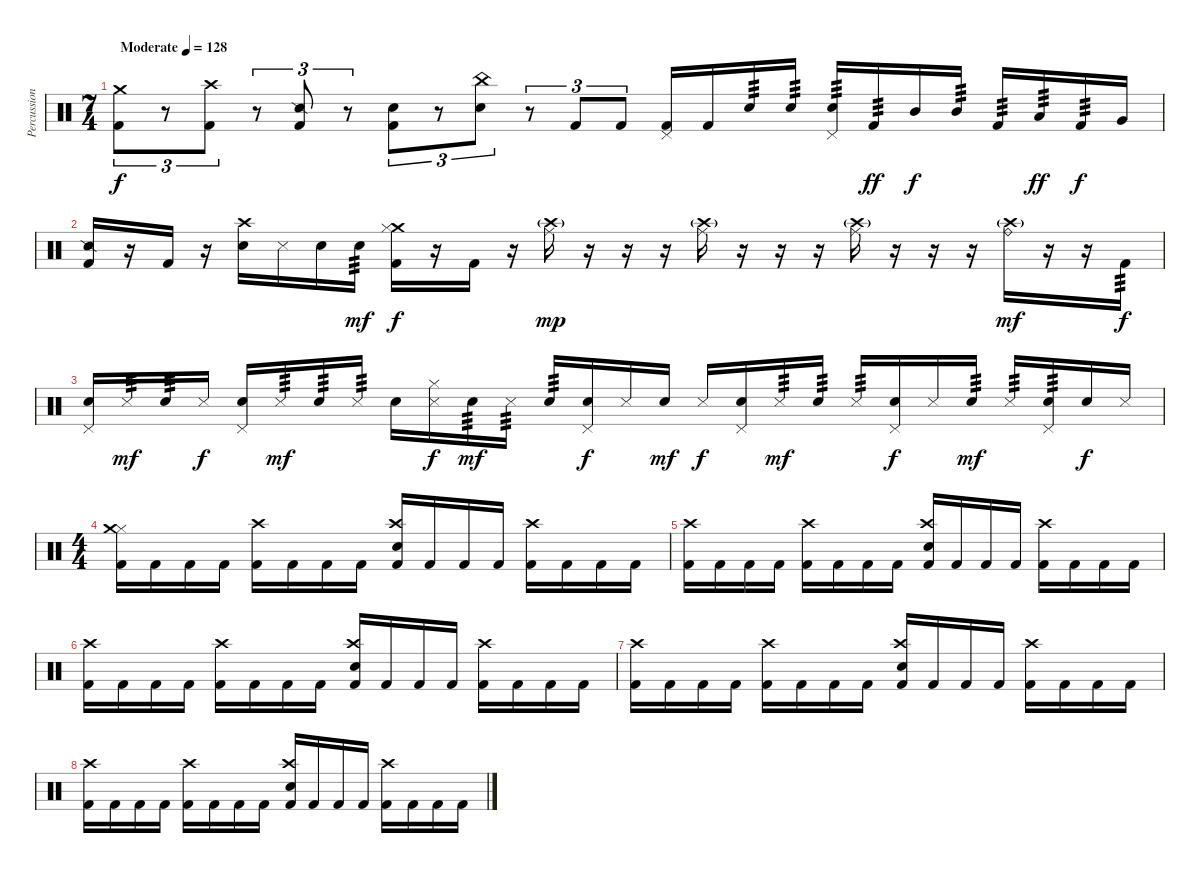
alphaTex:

\track ("Percussion" "Percussion") {instrument percussion}
\staff {score}
\articulation defaults
\ts (7 4)
\tempo (128 "Moderate")
\clef neutral
\ks c
("Crash medium (hit)" "Kick (hit) 2").8{tu (3 2) dy f} r.8{tu (3 2)} ("Crash high (hit)" "Kick (hit) 2").8{tu (3 2)} r.8{tu (3 2)} ("Snare (side stick) 2" "Kick (hit) 2").8{tu (3 2)} r.8{tu (3 2)} ("Snare (hit)" "Kick (hit) 2").8{tu (3 2)} r.8{tu (3 2)} ("China (hit)" "Snare (hit) 2").8{tu (3 2)} r.8{tu (3 2)} "Kick (hit) 2".8{tu (3 2)} "Kick (hit) 2".8{tu (3 2)} ("Pedal Hi-Hat (hit)" "Kick (hit) 2").16 "Kick (hit) 2".16 "Snare (hit) 2".16{tp 3} "Snare (hit) 2".16{tp 3} ("Pedal Hi-Hat (hit)" "Snare (hit) 2").16{tp 3} "Kick (hit) 2".16{tp 3 dy ff} "Mid Tom (hit)".16{dy f} "Mid Tom (hit)".16{tp 3} "Kick (hit) 2".16{tp 3} "Low Tom (hit)".16{tp 3 dy ff} "Kick (hit) 2".16{tp 3 dy f} "Very Low Tom (hit)".16 |
("Snare (side stick) 2" "Kick (hit) 2").16 r.16 "Kick (hit) 2".16 r.16 ("Crash high (hit)" "Snare (hit) 2").16 "Metronome (hit)".16 "Snare (hit) 2".16 "Snare (hit) 2".16{tp 3 dy mf} ("Crash medium (hit)" "Hi-Hat (closed)" "Kick (hit) 2").16{dy f} r.16 "Kick (hit) 2".16 r.16 ("Ride (middle)" "Crash high (hit)"{g}).16{dy mp} r.16 r.16 r.16 ("Ride (middle)" "Crash high (hit)"{g}).16 r.16 r.16 r.16 ("Ride (middle)" "Crash high (hit)"{g}).16 r.16 r.16 r.16 ("Ride (bell)" "Crash high (hit)"{g}).16{dy mf} r.16 r.16 "Kick (hit) 2".16{tp 3 dy f} |
("Pedal Hi-Hat (hit)" "Snare (hit) 2").16 "Metronome (hit)".16{tp 3 dy mf} "Snare (hit) 2".16{tp 3} "Metronome (hit)".16{dy f} ("Pedal Hi-Hat (hit)" "Snare (hit) 2").16 "Metronome (hit)".16{tp 3 dy mf} "Snare (hit) 2".16{tp 3} "Metronome (hit)".16{tp 3} "Snare (hit) 2".16 ("Hi-Hat (closed)" "Metronome (hit)").16{dy f} "Snare (hit) 2".16{tp 3 dy mf} "Metronome (hit)".16{tp 3} "Snare (hit) 2".16{tp 3} ("Pedal Hi-Hat (hit)" "Snare (hit) 2").16{dy f} "Metronome (hit)".16 "Snare (hit) 2".16{dy mf} "Metronome (hit)".16{dy f} ("Pedal Hi-Hat (hit)" "Snare (hit) 2").16 "Metronome (hit)".16{tp 3 dy mf} "Snare (hit) 2".16{tp 3} "Metronome (hit)".16{tp 3} ("Pedal Hi-Hat (hit)" "Snare (hit) 2").16{dy f} "Metronome (hit)".16 "Snare (hit) 2".16{tp 3 dy mf} "Metronome (hit)".16{tp 3} ("Pedal Hi-Hat (hit)" "Snare (hit) 2").16{tp 3} "Snare (hit) 2".16{dy f} "Metronome (hit)".16 |
\ts (4 4)
("Hi-Hat (closed)" "Crash medium (hit)" "Kick (hit) 2").16 "Kick (hit) 2".16 "Kick (hit) 2".16 "Kick (hit) 2".16 ("Crash high (hit)" "Kick (hit) 2").16 "Kick (hit) 2".16 "Kick (hit) 2".16 "Kick (hit) 2".16 ("Crash high (hit)" "Snare (hit) 2" "Kick (hit) 2").16 "Kick (hit) 2".16 "Kick (hit) 2".16 "Kick (hit) 2".16 ("Crash high (hit)" "Kick (hit) 2").16 "Kick (hit) 2".16 "Kick (hit) 2".16 "Kick (hit) 2".16 |
("Crash high (hit)" "Kick (hit) 2").16 "Kick (hit) 2".16 "Kick (hit) 2".16 "Kick (hit) 2".16 ("Crash high (hit)" "Kick (hit) 2").16 "Kick (hit) 2".16 "Kick (hit) 2".16 "Kick (hit) 2".16 ("Crash high (hit)" "Snare (hit) 2" "Kick (hit) 2").16 "Kick (hit) 2".16 "Kick (hit) 2".16 "Kick (hit) 2".16 ("Crash high (hit)" "Kick (hit) 2").16 "Kick (hit) 2".16 "Kick (hit) 2".16 "Kick (hit) 2".16 |
("Crash high (hit)" "Kick (hit) 2").16 "Kick (hit) 2".16 "Kick (hit) 2".16 "Kick (hit) 2".16 ("Crash high (hit)" "Kick (hit) 2").16 "Kick (hit) 2".16 "Kick (hit) 2".16 "Kick (hit) 2".16 ("Crash high (hit)" "Snare (hit) 2" "Kick (hit) 2").16 "Kick (hit) 2".16 "Kick (hit) 2".16 "Kick (hit) 2".16 ("Crash high (hit)" "Kick (hit) 2").16 "Kick (hit) 2".16 "Kick (hit) 2".16 "Kick (hit) 2".16 |
("Crash high (hit)" "Kick (hit) 2").16 "Kick (hit) 2".16 "Kick (hit) 2".16 "Kick (hit) 2".16 ("Crash high (hit)" "Kick (hit) 2").16 "Kick (hit) 2".16 "Kick (hit) 2".16 "Kick (hit) 2".16 ("Crash high (hit)" "Snare (hit) 2" "Kick (hit) 2").16 "Kick (hit) 2".16 "Kick (hit) 2".16 "Kick (hit) 2".16 ("Crash high (hit)" "Kick (hit) 2").16 "Kick (hit) 2".16 "Kick (hit) 2".16 "Kick (hit) 2".16 |
("Crash high (hit)" "Kick (hit) 2").16 "Kick (hit) 2".16 "Kick (hit) 2".16 "Kick (hit) 2".16 ("Crash high (hit)" "Kick (hit) 2").16 "Kick (hit) 2".16 "Kick (hit) 2".16 "Kick (hit) 2".16 ("Crash high (hit)" "Snare (hit) 2" "Kick (hit) 2").16 "Kick (hit) 2".16 "Kick (hit) 2".16 "Kick (hit) 2".16 ("Crash high (hit)" "Kick (hit) 2").16 "Kick (hit) 2".16 "Kick (hit) 2".16 "Kick (hit) 2".16
